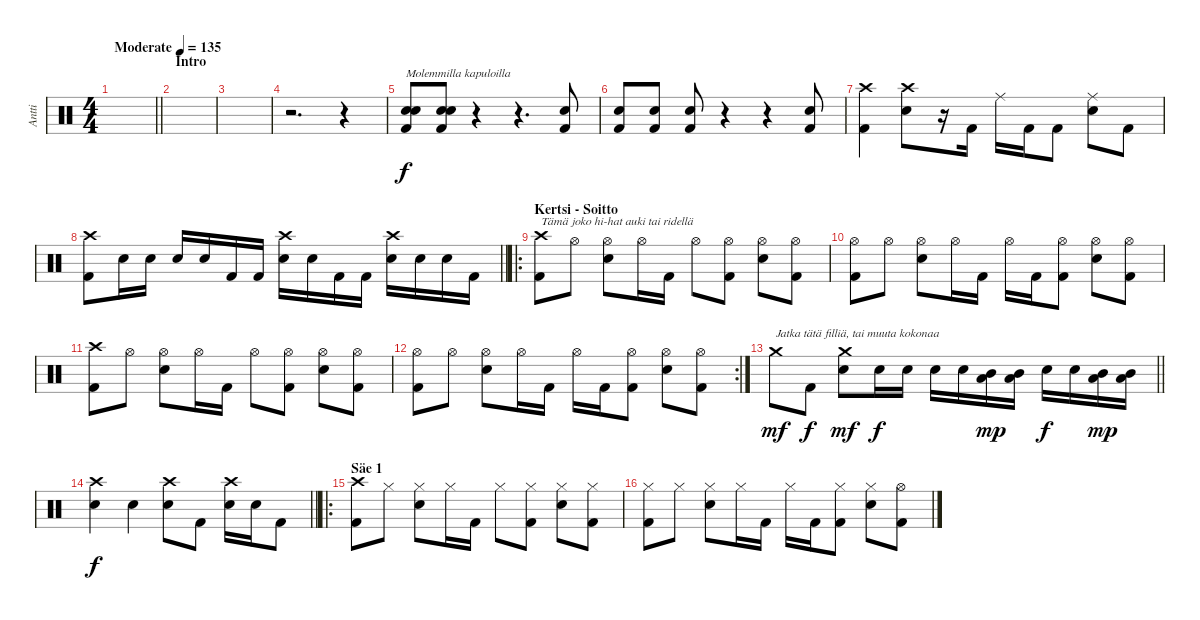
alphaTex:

\track ("Antti" "Antti") {instrument percussion}
\staff {score}
\articulation defaults
\ts (4 4)
\tempo (135 "Moderate")
\clef neutral
\barLineRight lightlight
\ks c
|
\section ("" "Intro")
|
|
r.2{d} r.4 |
("Snare (hit) 2" "Snare (hit) 2" "Kick (hit) 2").8{txt "Molemmilla kapuloilla"} ("Snare (hit) 2" "Snare (hit) 2" "Kick (hit) 2").8 r.4 r.4{d} ("Snare (hit) 2" "Kick (hit) 2").8 |
("Snare (hit) 2" "Kick (hit) 2").8 ("Snare (hit) 2" "Kick (hit) 2").8 ("Snare (hit) 2" "Kick (hit) 2").8 r.4 r.4 ("Snare (hit) 2" "Kick (hit) 2").8 |
("Crash high (hit)" "Kick (hit) 2").4 ("Crash high (hit)" "Snare (hit) 2").8 r.16 "Kick (hit) 2".16 "Ride (middle)".16 "Kick (hit) 2".16 "Kick (hit) 2".8 ("Ride (middle)" "Snare (hit) 2").8 "Kick (hit) 2".8 |
\barLineRight lightlight
("Crash high (hit)" "Kick (hit) 2").8 "Snare (hit) 2".16 "Snare (hit) 2".16 "Snare (hit) 2".16 "Snare (hit) 2".16 "Kick (hit) 2".16 "Kick (hit) 2".16 ("Crash high (hit)" "Snare (hit) 2").16 "Snare (hit) 2".16 "Kick (hit) 2".16 "Kick (hit) 2".16 ("Crash high (hit)" "Snare (hit) 2").16 "Snare (hit) 2".16 "Snare (hit) 2".16 "Kick (hit) 2".16 |
\ro
\section ("" "Kertsi - Soitto")
("Crash high (hit)" "Kick (hit) 2").8{txt "Tämä joko hi-hat auki tai ridellä"} "Hi-Hat (open)".8 ("Hi-Hat (open)" "Snare (hit) 2").8 "Hi-Hat (open)".16 "Kick (hit) 2".16 "Hi-Hat (open)".8 ("Hi-Hat (open)" "Kick (hit) 2").8 ("Hi-Hat (open)" "Snare (hit) 2").8 ("Hi-Hat (open)" "Kick (hit) 2").8 |
("Hi-Hat (open)" "Kick (hit) 2").8 "Hi-Hat (open)".8 ("Hi-Hat (open)" "Snare (hit) 2").8 "Hi-Hat (open)".16 "Kick (hit) 2".16 "Hi-Hat (open)".16 "Kick (hit) 2".16 ("Hi-Hat (open)" "Kick (hit) 2").8 ("Hi-Hat (open)" "Snare (hit) 2").8 ("Hi-Hat (open)" "Kick (hit) 2").8 |
("Crash high (hit)" "Kick (hit) 2").8 "Hi-Hat (open)".8 ("Hi-Hat (open)" "Snare (hit) 2").8 "Hi-Hat (open)".16 "Kick (hit) 2".16 "Hi-Hat (open)".8 ("Hi-Hat (open)" "Kick (hit) 2").8 ("Hi-Hat (open)" "Snare (hit) 2").8 ("Hi-Hat (open)" "Kick (hit) 2").8 |
\rc 2
("Hi-Hat (open)" "Kick (hit) 2").8 "Hi-Hat (open)".8 ("Hi-Hat (open)" "Snare (hit) 2").8 "Hi-Hat (open)".16 "Kick (hit) 2".16 "Hi-Hat (open)".16 "Kick (hit) 2".16 ("Hi-Hat (open)" "Kick (hit) 2").8 ("Hi-Hat (open)" "Snare (hit) 2").8 ("Hi-Hat (open)" "Kick (hit) 2").8 |
\barLineRight lightlight "Crash medium (hit)".8{txt "Jatka tätä filliä, tai muuta kokonaa" dy mf} "Kick (hit) 2".8{dy f}
("Snare (hit) 2" "Crash medium (hit)").8{dy mf} "Snare (hit) 2".16{dy f} "Snare (hit) 2".16 "Snare (hit) 2".16 "Snare (hit) 2".16 ("Mid Tom (hit)" "Low Tom (hit)").16{dy mp} ("Mid Tom (hit)" "Low Tom (hit)").16 "Snare (hit) 2".16{dy f} "Snare (hit) 2".16 ("Mid Tom (hit)" "Low Tom (hit)").16{dy mp} ("Mid Tom (hit)" "Low Tom (hit)").16 |
\barLineRight lightlight
("Crash high (hit)" "Snare (hit) 2").4{dy f} "Snare (hit) 2".4 ("Crash high (hit)" "Snare (hit) 2").8 "Kick (hit) 2".8 ("Crash high (hit)" "Snare (hit) 2").16 "Snare (hit) 2".16 "Kick (hit) 2".8 |
\ro
\section ("" "Säe 1")
("Crash high (hit)" "Kick (hit) 2").8 "Hi-Hat (closed)".8 ("Hi-Hat (closed)" "Snare (hit) 2").8 "Hi-Hat (closed)".16 "Kick (hit) 2".16 "Hi-Hat (closed)".8 ("Hi-Hat (closed)" "Kick (hit) 2").8 ("Hi-Hat (closed)" "Snare (hit) 2").8 ("Hi-Hat (closed)" "Kick (hit) 2").8 |
("Hi-Hat (closed)" "Kick (hit) 2").8 "Hi-Hat (closed)".8 ("Hi-Hat (closed)" "Snare (hit) 2").8 "Hi-Hat (closed)".16 "Kick (hit) 2".16 "Hi-Hat (closed)".16 "Kick (hit) 2".16 ("Hi-Hat (closed)" "Kick (hit) 2").8 ("Hi-Hat (closed)" "Snare (hit) 2").8 ("Hi-Hat (open)" "Kick (hit) 2").8
